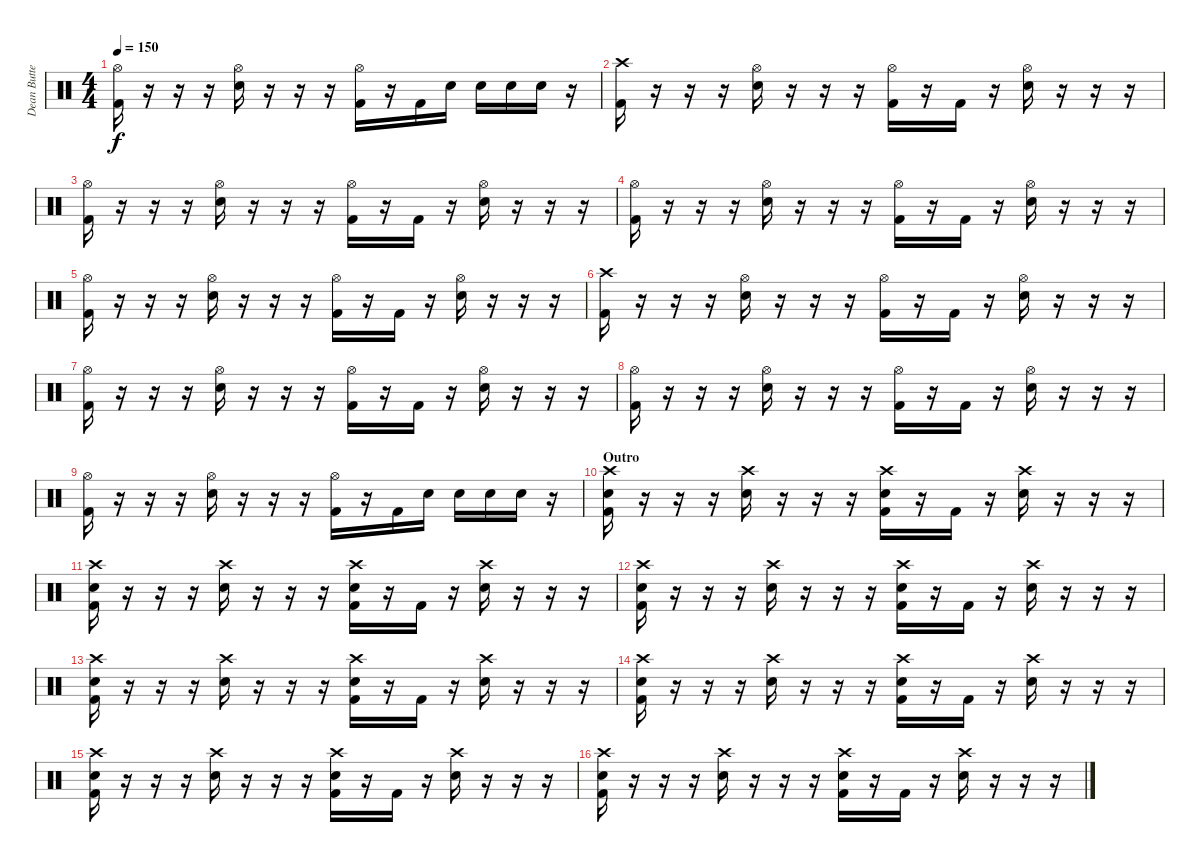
\track ("Dean Butterworth" "Dean Butte") {instrument percussion}
\staff {score}
\articulation defaults
\ts (4 4)
\tempo 150
\clef neutral
\ks c
("Hi-Hat (open)" "Kick (hit) 2").16{dy f} r.16 r.16 r.16 ("Hi-Hat (open)" "Electric Snare (hit)").16 r.16 r.16 r.16 ("Hi-Hat (open)" "Kick (hit) 2").16 r.16 "Kick (hit) 2".16 "Electric Snare (hit)".16 "Electric Snare (hit)".16 "Electric Snare (hit)".16 "Electric Snare (hit)".16 r.16 |
("Crash high (hit)" "Kick (hit) 2").16 r.16 r.16 r.16 ("Hi-Hat (open)" "Electric Snare (hit)").16 r.16 r.16 r.16 ("Hi-Hat (open)" "Kick (hit) 2").16 r.16 "Kick (hit) 2".16 r.16 ("Hi-Hat (open)" "Electric Snare (hit)").16 r.16 r.16 r.16 |
("Hi-Hat (open)" "Kick (hit) 2").16 r.16 r.16 r.16 ("Hi-Hat (open)" "Electric Snare (hit)").16 r.16 r.16 r.16 ("Hi-Hat (open)" "Kick (hit) 2").16 r.16 "Kick (hit) 2".16 r.16 ("Hi-Hat (open)" "Electric Snare (hit)").16 r.16 r.16 r.16 |
("Hi-Hat (open)" "Kick (hit) 2").16 r.16 r.16 r.16 ("Hi-Hat (open)" "Electric Snare (hit)").16 r.16 r.16 r.16 ("Hi-Hat (open)" "Kick (hit) 2").16 r.16 "Kick (hit) 2".16 r.16 ("Hi-Hat (open)" "Electric Snare (hit)").16 r.16 r.16 r.16 |
("Hi-Hat (open)" "Kick (hit) 2").16 r.16 r.16 r.16 ("Hi-Hat (open)" "Electric Snare (hit)").16 r.16 r.16 r.16 ("Hi-Hat (open)" "Kick (hit) 2").16 r.16 "Kick (hit) 2".16 r.16 ("Hi-Hat (open)" "Electric Snare (hit)").16 r.16 r.16 r.16 |
("Crash high (hit)" "Kick (hit) 2").16 r.16 r.16 r.16 ("Hi-Hat (open)" "Electric Snare (hit)").16 r.16 r.16 r.16 ("Hi-Hat (open)" "Kick (hit) 2").16 r.16 "Kick (hit) 2".16 r.16 ("Hi-Hat (open)" "Electric Snare (hit)").16 r.16 r.16 r.16 |
("Hi-Hat (open)" "Kick (hit) 2").16 r.16 r.16 r.16 ("Hi-Hat (open)" "Electric Snare (hit)").16 r.16 r.16 r.16 ("Hi-Hat (open)" "Kick (hit) 2").16 r.16 "Kick (hit) 2".16 r.16 ("Hi-Hat (open)" "Electric Snare (hit)").16 r.16 r.16 r.16 |
("Hi-Hat (open)" "Kick (hit) 2").16 r.16 r.16 r.16 ("Hi-Hat (open)" "Electric Snare (hit)").16 r.16 r.16 r.16 ("Hi-Hat (open)" "Kick (hit) 2").16 r.16 "Kick (hit) 2".16 r.16 ("Hi-Hat (open)" "Electric Snare (hit)").16 r.16 r.16 r.16 |
("Hi-Hat (open)" "Kick (hit) 2").16 r.16 r.16 r.16 ("Hi-Hat (open)" "Electric Snare (hit)").16 r.16 r.16 r.16 ("Hi-Hat (open)" "Kick (hit) 2").16 r.16 "Kick (hit) 2".16 "Electric Snare (hit)".16 "Electric Snare (hit)".16 "Electric Snare (hit)".16 "Electric Snare (hit)".16 r.16 |
\section ("" "Outro")
("Crash high (hit)" "Electric Snare (hit)" "Kick (hit) 2").16 r.16 r.16 r.16 ("Crash high (hit)" "Electric Snare (hit)").16 r.16 r.16 r.16 ("Crash high (hit)" "Electric Snare (hit)" "Kick (hit) 2").16 r.16 "Kick (hit) 2".16 r.16 ("Crash high (hit)" "Electric Snare (hit)").16 r.16 r.16 r.16 |
("Crash high (hit)" "Electric Snare (hit)" "Kick (hit) 2").16 r.16 r.16 r.16 ("Crash high (hit)" "Electric Snare (hit)").16 r.16 r.16 r.16 ("Crash high (hit)" "Electric Snare (hit)" "Kick (hit) 2").16 r.16 "Kick (hit) 2".16 r.16 ("Crash high (hit)" "Electric Snare (hit)").16 r.16 r.16 r.16 |
("Crash high (hit)" "Electric Snare (hit)" "Kick (hit) 2").16 r.16 r.16 r.16 ("Crash high (hit)" "Electric Snare (hit)").16 r.16 r.16 r.16 ("Crash high (hit)" "Electric Snare (hit)" "Kick (hit) 2").16 r.16 "Kick (hit) 2".16 r.16 ("Crash high (hit)" "Electric Snare (hit)").16 r.16 r.16 r.16 |
("Crash high (hit)" "Electric Snare (hit)" "Kick (hit) 2").16 r.16 r.16 r.16 ("Crash high (hit)" "Electric Snare (hit)").16 r.16 r.16 r.16 ("Crash high (hit)" "Electric Snare (hit)" "Kick (hit) 2").16 r.16 "Kick (hit) 2".16 r.16 ("Crash high (hit)" "Electric Snare (hit)").16 r.16 r.16 r.16 |
("Crash high (hit)" "Electric Snare (hit)" "Kick (hit) 2").16 r.16 r.16 r.16 ("Crash high (hit)" "Electric Snare (hit)").16 r.16 r.16 r.16 ("Crash high (hit)" "Electric Snare (hit)" "Kick (hit) 2").16 r.16 "Kick (hit) 2".16 r.16 ("Crash high (hit)" "Electric Snare (hit)").16 r.16 r.16 r.16 |
("Crash high (hit)" "Electric Snare (hit)" "Kick (hit) 2").16 r.16 r.16 r.16 ("Crash high (hit)" "Electric Snare (hit)").16 r.16 r.16 r.16 ("Crash high (hit)" "Electric Snare (hit)" "Kick (hit) 2").16 r.16 "Kick (hit) 2".16 r.16 ("Crash high (hit)" "Electric Snare (hit)").16 r.16 r.16 r.16 |
("Crash high (hit)" "Electric Snare (hit)" "Kick (hit) 2").16 r.16 r.16 r.16 ("Crash high (hit)" "Electric Snare (hit)").16 r.16 r.16 r.16 ("Crash high (hit)" "Electric Snare (hit)" "Kick (hit) 2").16 r.16 "Kick (hit) 2".16 r.16 ("Crash high (hit)" "Electric Snare (hit)").16 r.16 r.16 r.16
